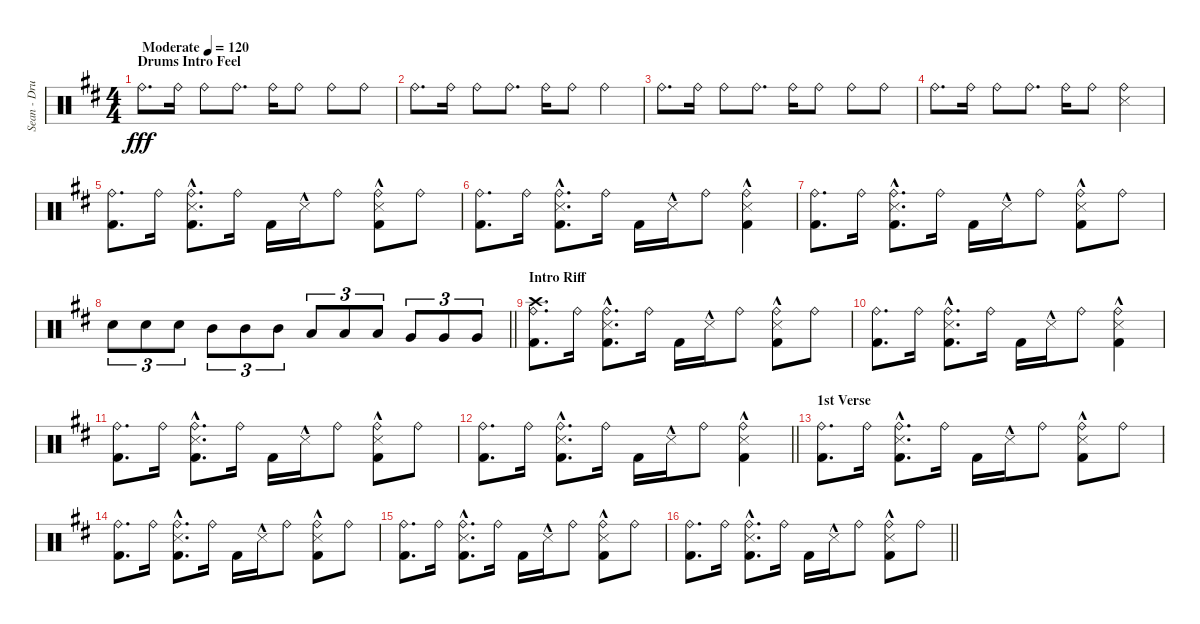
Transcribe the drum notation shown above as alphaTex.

\track ("Sean - Drums" "Sean - Dru") {instrument percussion}
\staff {score}
\articulation defaults
\ts (4 4)
\section ("" "Drums Intro Feel")
\tempo (120 "Moderate")
\clef neutral
\ks d "Ride (bell)".8{d dy fff} "Ride (bell)".16 "Ride (bell)".8 "Ride (bell)".8{d} "Ride (bell)".16 "Ride (bell)".8 "Ride (bell)".8 "Ride (bell)".8
|
"Ride (bell)".8{d} "Ride (bell)".16 "Ride (bell)".8 "Ride (bell)".8{d} "Ride (bell)".16 "Ride (bell)".8 "Ride (bell)".4 |
"Ride (bell)".8{d} "Ride (bell)".16 "Ride (bell)".8 "Ride (bell)".8{d} "Ride (bell)".16 "Ride (bell)".8 "Ride (bell)".8 "Ride (bell)".8 |
"Ride (bell)".8{d} "Ride (bell)".16 "Ride (bell)".8 "Ride (bell)".8{d} "Ride (bell)".16 "Ride (bell)".8 ("Ride (bell)" "Metronome (hit)").4 |
("Ride (bell)" "Kick (hit) 2").8{d} "Ride (bell)".16 ("Ride (bell)" "Metronome (hit)"{hac} "Kick (hit) 2").8{d} "Ride (bell)".16 "Kick (hit) 2".16 "Metronome (hit)"{hac}.16 "Ride (bell)".8 ("Ride (bell)" "Metronome (hit)"{hac} "Kick (hit) 2").8 "Ride (bell)".8 |
("Ride (bell)" "Kick (hit) 2").8{d} "Ride (bell)".16 ("Ride (bell)" "Metronome (hit)"{hac} "Kick (hit) 2").8{d} "Ride (bell)".16 "Kick (hit) 2".16 "Metronome (hit)"{hac}.16 "Ride (bell)".8 ("Ride (bell)" "Metronome (hit)"{hac} "Kick (hit) 2").4 |
("Ride (bell)" "Kick (hit) 2").8{d} "Ride (bell)".16 ("Ride (bell)" "Metronome (hit)"{hac} "Kick (hit) 2").8{d} "Ride (bell)".16 "Kick (hit) 2".16 "Metronome (hit)"{hac}.16 "Ride (bell)".8 ("Ride (bell)" "Metronome (hit)"{hac} "Kick (hit) 2").8 "Ride (bell)".8 |
\barLineRight lightlight "Snare (hit) 2".8{tu (3 2)} "Snare (hit) 2".8{tu (3 2)} "Snare (hit) 2".8{tu (3 2)} "Mid Tom (hit)".8{tu (3 2)} "Mid Tom (hit)".8{tu (3 2)} "Mid Tom (hit)".8{tu (3 2)} "Low Tom (hit)".8{tu (3 2)} "Low Tom (hit)".8{tu (3 2)} "Low Tom (hit)".8{tu (3 2)} "Very Low Tom (hit)".8{tu (3 2)} "Very Low Tom (hit)".8{tu (3 2)} "Very Low Tom (hit)".8{tu (3 2)}
|
\section ("" "Intro Riff")
("Ride (bell)" "Crash high (hit)" "Kick (hit) 2").8{d} "Ride (bell)".16 ("Ride (bell)" "Metronome (hit)"{hac} "Kick (hit) 2").8{d} "Ride (bell)".16 "Kick (hit) 2".16 "Metronome (hit)"{hac}.16 "Ride (bell)".8 ("Ride (bell)" "Metronome (hit)"{hac} "Kick (hit) 2").8 "Ride (bell)".8 |
("Ride (bell)" "Kick (hit) 2").8{d} "Ride (bell)".16 ("Ride (bell)" "Metronome (hit)"{hac} "Kick (hit) 2").8{d} "Ride (bell)".16 "Kick (hit) 2".16 "Metronome (hit)"{hac}.16 "Ride (bell)".8 ("Ride (bell)" "Metronome (hit)"{hac} "Kick (hit) 2").4 |
("Ride (bell)" "Kick (hit) 2").8{d} "Ride (bell)".16 ("Ride (bell)" "Metronome (hit)"{hac} "Kick (hit) 2").8{d} "Ride (bell)".16 "Kick (hit) 2".16 "Metronome (hit)"{hac}.16 "Ride (bell)".8 ("Ride (bell)" "Metronome (hit)"{hac} "Kick (hit) 2").8 "Ride (bell)".8 |
\barLineRight lightlight
("Ride (bell)" "Kick (hit) 2").8{d} "Ride (bell)".16 ("Ride (bell)" "Metronome (hit)"{hac} "Kick (hit) 2").8{d} "Ride (bell)".16 "Kick (hit) 2".16 "Metronome (hit)"{hac}.16 "Ride (bell)".8 ("Ride (bell)" "Metronome (hit)"{hac} "Kick (hit) 2").4 |
\section ("" "1st Verse")
("Ride (bell)" "Kick (hit) 2").8{d} "Ride (bell)".16 ("Ride (bell)" "Metronome (hit)"{hac} "Kick (hit) 2").8{d} "Ride (bell)".16 "Kick (hit) 2".16 "Metronome (hit)"{hac}.16 "Ride (bell)".8 ("Ride (bell)" "Metronome (hit)"{hac} "Kick (hit) 2").8 "Ride (bell)".8 |
("Ride (bell)" "Kick (hit) 2").8{d} "Ride (bell)".16 ("Ride (bell)" "Metronome (hit)"{hac} "Kick (hit) 2").8{d} "Ride (bell)".16 "Kick (hit) 2".16 "Metronome (hit)"{hac}.16 "Ride (bell)".8 ("Ride (bell)" "Metronome (hit)"{hac} "Kick (hit) 2").8 "Ride (bell)".8 |
("Ride (bell)" "Kick (hit) 2").8{d} "Ride (bell)".16 ("Ride (bell)" "Metronome (hit)"{hac} "Kick (hit) 2").8{d} "Ride (bell)".16 "Kick (hit) 2".16 "Metronome (hit)"{hac}.16 "Ride (bell)".8 ("Ride (bell)" "Metronome (hit)"{hac} "Kick (hit) 2").8 "Ride (bell)".8 |
\barLineRight lightlight
("Ride (bell)" "Kick (hit) 2").8{d} "Ride (bell)".16 ("Ride (bell)" "Metronome (hit)"{hac} "Kick (hit) 2").8{d} "Ride (bell)".16 "Kick (hit) 2".16 "Metronome (hit)"{hac}.16 "Ride (bell)".8 ("Ride (bell)" "Metronome (hit)"{hac} "Kick (hit) 2").8 "Ride (bell)".8
